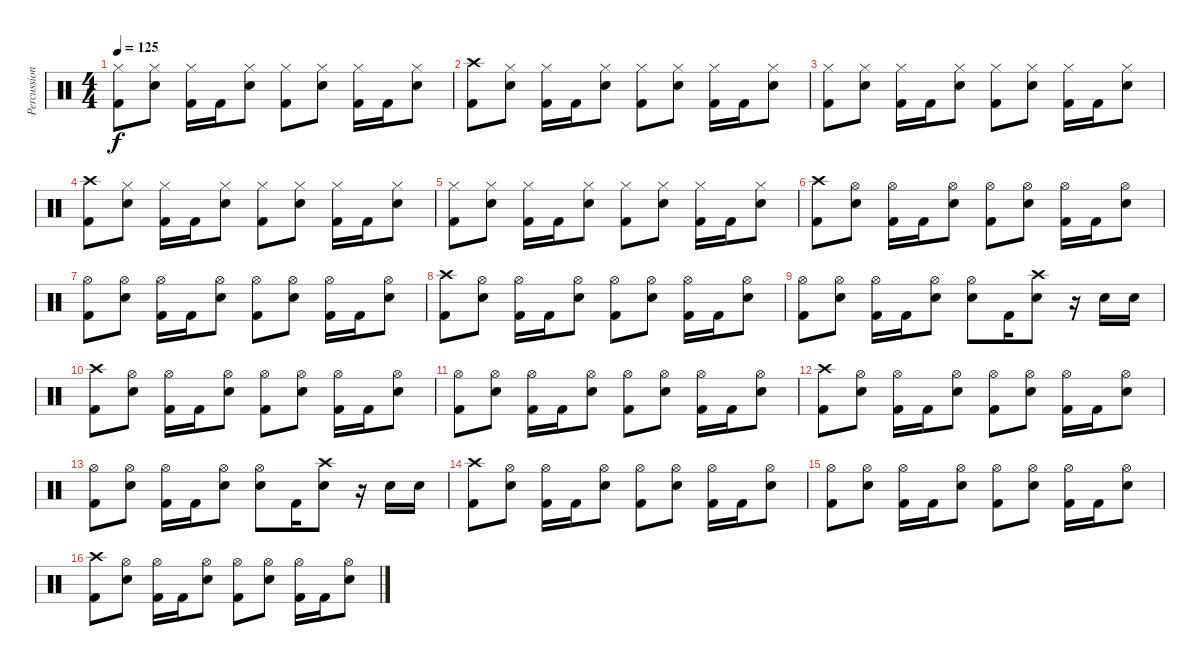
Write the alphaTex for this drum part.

\track ("Percussion" "Percussion") {instrument percussion}
\staff {score}
\articulation defaults
\ts (4 4)
\tempo 125
\clef neutral
\ks c
("Hi-Hat (closed)" "Kick (hit) 2").8{dy f} ("Hi-Hat (closed)" "Electric Snare (hit)").8 ("Hi-Hat (closed)" "Kick (hit) 2").16 "Kick (hit) 2".16 ("Hi-Hat (closed)" "Electric Snare (hit)").8 ("Hi-Hat (closed)" "Kick (hit) 2").8 ("Hi-Hat (closed)" "Electric Snare (hit)").8 ("Hi-Hat (closed)" "Kick (hit) 2").16 "Kick (hit) 2".16 ("Hi-Hat (closed)" "Electric Snare (hit)").8 |
("Crash high (hit)" "Kick (hit) 2").8 ("Hi-Hat (closed)" "Electric Snare (hit)").8 ("Hi-Hat (closed)" "Kick (hit) 2").16 "Kick (hit) 2".16 ("Hi-Hat (closed)" "Electric Snare (hit)").8 ("Hi-Hat (closed)" "Kick (hit) 2").8 ("Hi-Hat (closed)" "Electric Snare (hit)").8 ("Hi-Hat (closed)" "Kick (hit) 2").16 "Kick (hit) 2".16 ("Hi-Hat (closed)" "Electric Snare (hit)").8 |
("Hi-Hat (closed)" "Kick (hit) 2").8 ("Hi-Hat (closed)" "Electric Snare (hit)").8 ("Hi-Hat (closed)" "Kick (hit) 2").16 "Kick (hit) 2".16 ("Hi-Hat (closed)" "Electric Snare (hit)").8 ("Hi-Hat (closed)" "Kick (hit) 2").8 ("Hi-Hat (closed)" "Electric Snare (hit)").8 ("Hi-Hat (closed)" "Kick (hit) 2").16 "Kick (hit) 2".16 ("Hi-Hat (closed)" "Electric Snare (hit)").8 |
("Crash high (hit)" "Kick (hit) 2").8 ("Hi-Hat (closed)" "Electric Snare (hit)").8 ("Hi-Hat (closed)" "Kick (hit) 2").16 "Kick (hit) 2".16 ("Hi-Hat (closed)" "Electric Snare (hit)").8 ("Hi-Hat (closed)" "Kick (hit) 2").8 ("Hi-Hat (closed)" "Electric Snare (hit)").8 ("Hi-Hat (closed)" "Kick (hit) 2").16 "Kick (hit) 2".16 ("Hi-Hat (closed)" "Electric Snare (hit)").8 |
("Hi-Hat (closed)" "Kick (hit) 2").8 ("Hi-Hat (closed)" "Electric Snare (hit)").8 ("Hi-Hat (closed)" "Kick (hit) 2").16 "Kick (hit) 2".16 ("Hi-Hat (closed)" "Electric Snare (hit)").8 ("Hi-Hat (closed)" "Kick (hit) 2").8 ("Hi-Hat (closed)" "Electric Snare (hit)").8 ("Hi-Hat (closed)" "Kick (hit) 2").16 "Kick (hit) 2".16 ("Hi-Hat (closed)" "Electric Snare (hit)").8 |
("Crash high (hit)" "Kick (hit) 2").8 ("Hi-Hat (open)" "Electric Snare (hit)").8 ("Hi-Hat (open)" "Kick (hit) 2").16 "Kick (hit) 2".16 ("Hi-Hat (open)" "Electric Snare (hit)").8 ("Hi-Hat (open)" "Kick (hit) 2").8 ("Hi-Hat (open)" "Electric Snare (hit)").8 ("Hi-Hat (open)" "Kick (hit) 2").16 "Kick (hit) 2".16 ("Hi-Hat (open)" "Electric Snare (hit)").8 |
("Hi-Hat (open)" "Kick (hit) 2").8 ("Hi-Hat (open)" "Electric Snare (hit)").8 ("Hi-Hat (open)" "Kick (hit) 2").16 "Kick (hit) 2".16 ("Hi-Hat (open)" "Electric Snare (hit)").8 ("Hi-Hat (open)" "Kick (hit) 2").8 ("Hi-Hat (open)" "Electric Snare (hit)").8 ("Hi-Hat (open)" "Kick (hit) 2").16 "Kick (hit) 2".16 ("Hi-Hat (open)" "Electric Snare (hit)").8 |
("Crash high (hit)" "Kick (hit) 2").8 ("Hi-Hat (open)" "Electric Snare (hit)").8 ("Hi-Hat (open)" "Kick (hit) 2").16 "Kick (hit) 2".16 ("Hi-Hat (open)" "Electric Snare (hit)").8 ("Hi-Hat (open)" "Kick (hit) 2").8 ("Hi-Hat (open)" "Electric Snare (hit)").8 ("Hi-Hat (open)" "Kick (hit) 2").16 "Kick (hit) 2".16 ("Hi-Hat (open)" "Electric Snare (hit)").8 |
("Hi-Hat (open)" "Kick (hit) 2").8 ("Hi-Hat (open)" "Electric Snare (hit)").8 ("Hi-Hat (open)" "Kick (hit) 2").16 "Kick (hit) 2".16 ("Hi-Hat (open)" "Electric Snare (hit)").8 ("Hi-Hat (open)" "Electric Snare (hit)").8 "Kick (hit) 2".16 ("Crash high (hit)" "Electric Snare (hit)").8 r.16 "Electric Snare (hit)".16 "Electric Snare (hit)".16 |
("Crash high (hit)" "Kick (hit) 2").8 ("Hi-Hat (open)" "Electric Snare (hit)").8 ("Hi-Hat (open)" "Kick (hit) 2").16 "Kick (hit) 2".16 ("Hi-Hat (open)" "Electric Snare (hit)").8 ("Hi-Hat (open)" "Kick (hit) 2").8 ("Hi-Hat (open)" "Electric Snare (hit)").8 ("Hi-Hat (open)" "Kick (hit) 2").16 "Kick (hit) 2".16 ("Hi-Hat (open)" "Electric Snare (hit)").8 |
("Hi-Hat (open)" "Kick (hit) 2").8 ("Hi-Hat (open)" "Electric Snare (hit)").8 ("Hi-Hat (open)" "Kick (hit) 2").16 "Kick (hit) 2".16 ("Hi-Hat (open)" "Electric Snare (hit)").8 ("Hi-Hat (open)" "Kick (hit) 2").8 ("Hi-Hat (open)" "Electric Snare (hit)").8 ("Hi-Hat (open)" "Kick (hit) 2").16 "Kick (hit) 2".16 ("Hi-Hat (open)" "Electric Snare (hit)").8 |
("Crash high (hit)" "Kick (hit) 2").8 ("Hi-Hat (open)" "Electric Snare (hit)").8 ("Hi-Hat (open)" "Kick (hit) 2").16 "Kick (hit) 2".16 ("Hi-Hat (open)" "Electric Snare (hit)").8 ("Hi-Hat (open)" "Kick (hit) 2").8 ("Hi-Hat (open)" "Electric Snare (hit)").8 ("Hi-Hat (open)" "Kick (hit) 2").16 "Kick (hit) 2".16 ("Hi-Hat (open)" "Electric Snare (hit)").8 |
("Hi-Hat (open)" "Kick (hit) 2").8 ("Hi-Hat (open)" "Electric Snare (hit)").8 ("Hi-Hat (open)" "Kick (hit) 2").16 "Kick (hit) 2".16 ("Hi-Hat (open)" "Electric Snare (hit)").8 ("Hi-Hat (open)" "Electric Snare (hit)").8 "Kick (hit) 2".16 ("Crash high (hit)" "Electric Snare (hit)").8 r.16 "Electric Snare (hit)".16 "Electric Snare (hit)".16 |
("Crash high (hit)" "Kick (hit) 2").8 ("Hi-Hat (open)" "Electric Snare (hit)").8 ("Hi-Hat (open)" "Kick (hit) 2").16 "Kick (hit) 2".16 ("Hi-Hat (open)" "Electric Snare (hit)").8 ("Hi-Hat (open)" "Kick (hit) 2").8 ("Hi-Hat (open)" "Electric Snare (hit)").8 ("Hi-Hat (open)" "Kick (hit) 2").16 "Kick (hit) 2".16 ("Hi-Hat (open)" "Electric Snare (hit)").8 |
("Hi-Hat (open)" "Kick (hit) 2").8 ("Hi-Hat (open)" "Electric Snare (hit)").8 ("Hi-Hat (open)" "Kick (hit) 2").16 "Kick (hit) 2".16 ("Hi-Hat (open)" "Electric Snare (hit)").8 ("Hi-Hat (open)" "Kick (hit) 2").8 ("Hi-Hat (open)" "Electric Snare (hit)").8 ("Hi-Hat (open)" "Kick (hit) 2").16 "Kick (hit) 2".16 ("Hi-Hat (open)" "Electric Snare (hit)").8 |
("Crash high (hit)" "Kick (hit) 2").8 ("Hi-Hat (open)" "Electric Snare (hit)").8 ("Hi-Hat (open)" "Kick (hit) 2").16 "Kick (hit) 2".16 ("Hi-Hat (open)" "Electric Snare (hit)").8 ("Hi-Hat (open)" "Kick (hit) 2").8 ("Hi-Hat (open)" "Electric Snare (hit)").8 ("Hi-Hat (open)" "Kick (hit) 2").16 "Kick (hit) 2".16 ("Hi-Hat (open)" "Electric Snare (hit)").8
